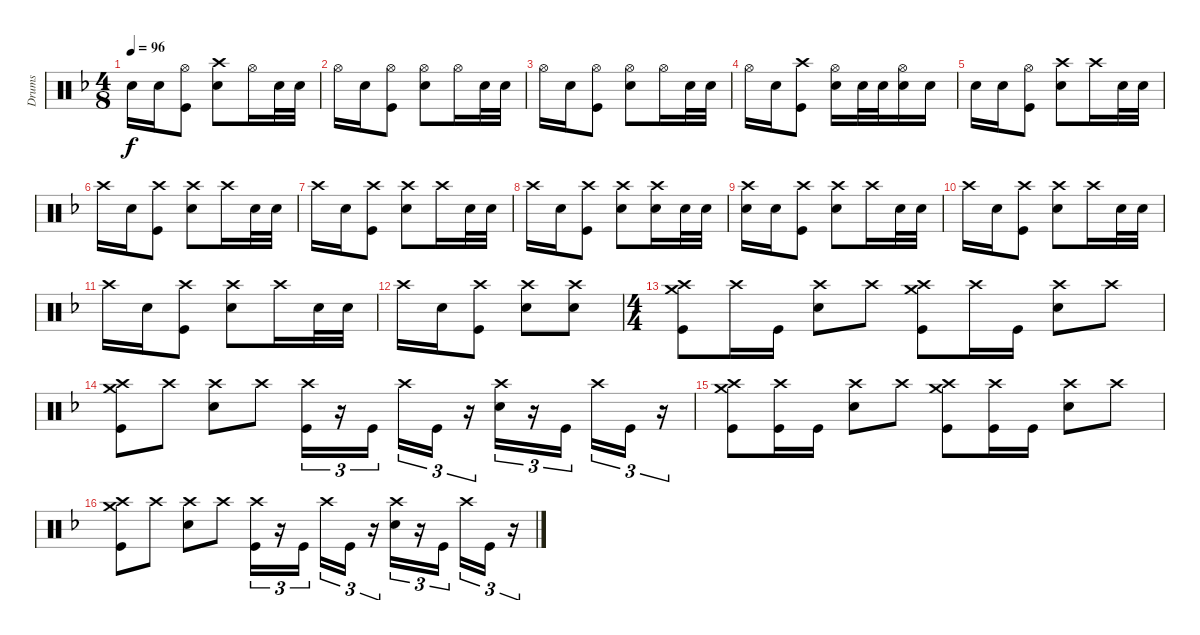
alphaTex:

\track ("Drums" "Drums") {instrument percussion}
\staff {score}
\articulation defaults
\ts (4 8)
\tempo 96
\clef neutral
\ks f "Snare (hit) 2".16{dy f} "Snare (hit) 2".16
("Hi-Hat (open)" "Kick (hit)").8 ("Crash high (hit)" "Snare (hit) 2").8 "Hi-Hat (open)".16 "Snare (hit) 2".32 "Snare (hit) 2".32 |
"Hi-Hat (open)".16 "Snare (hit) 2".16 ("Hi-Hat (open)" "Kick (hit)").8 ("Hi-Hat (open)" "Snare (hit) 2").8 "Hi-Hat (open)".16 "Snare (hit) 2".32 "Snare (hit) 2".32 |
"Hi-Hat (open)".16 "Snare (hit) 2".16 ("Hi-Hat (open)" "Kick (hit)").8 ("Hi-Hat (open)" "Snare (hit) 2").8 "Hi-Hat (open)".16 "Snare (hit) 2".32 "Snare (hit) 2".32 |
"Hi-Hat (open)".16 "Snare (hit) 2".16 ("Crash high (hit)" "Kick (hit)").8 ("Hi-Hat (open)" "Snare (hit) 2").16 "Snare (hit) 2".32 "Snare (hit) 2".32 ("Hi-Hat (open)" "Snare (hit) 2").16 "Snare (hit) 2".16 |
"Snare (hit) 2".16 "Snare (hit) 2".16 ("Hi-Hat (open)" "Kick (hit)").8 ("Crash high (hit)" "Snare (hit) 2").8 "Crash high (hit)".16 "Snare (hit) 2".32 "Snare (hit) 2".32 |
"Crash high (hit)".16 "Snare (hit) 2".16 ("Crash high (hit)" "Kick (hit)").8 ("Crash high (hit)" "Snare (hit) 2").8 "Crash high (hit)".16 "Snare (hit) 2".32 "Snare (hit) 2".32 |
"Crash high (hit)".16 "Snare (hit) 2".16 ("Crash high (hit)" "Kick (hit)").8 ("Crash high (hit)" "Snare (hit) 2").8 "Crash high (hit)".16 "Snare (hit) 2".32 "Snare (hit) 2".32 |
"Crash high (hit)".16 "Snare (hit) 2".16 ("Crash high (hit)" "Kick (hit)").8 ("Crash high (hit)" "Snare (hit) 2").8 ("Crash high (hit)" "Snare (hit) 2").16 "Snare (hit) 2".32 "Snare (hit) 2".32 |
("Crash high (hit)" "Snare (hit) 2").16 "Snare (hit) 2".16 ("Crash high (hit)" "Kick (hit)").8 ("Crash high (hit)" "Snare (hit) 2").8 "Crash high (hit)".16 "Snare (hit) 2".32 "Snare (hit) 2".32 |
"Crash high (hit)".16 "Snare (hit) 2".16 ("Crash high (hit)" "Kick (hit)").8 ("Crash high (hit)" "Snare (hit) 2").8 "Crash high (hit)".16 "Snare (hit) 2".32 "Snare (hit) 2".32 |
"Crash high (hit)".16 "Snare (hit) 2".16 ("Crash high (hit)" "Kick (hit)").8 ("Crash high (hit)" "Snare (hit) 2").8 "Crash high (hit)".16 "Snare (hit) 2".32 "Snare (hit) 2".32 |
"Crash high (hit)".16 "Snare (hit) 2".16 ("Crash high (hit)" "Kick (hit)").8 ("Crash high (hit)" "Snare (hit) 2").8 ("Crash high (hit)" "Snare (hit) 2").8 |
\ts (4 4)
("Crash medium (hit)" "Crash high (hit)" "Kick (hit)").8 "Crash high (hit)".16 "Kick (hit)".16 ("Crash high (hit)" "Snare (hit) 2").8 "Crash high (hit)".8 ("Crash medium (hit)" "Crash high (hit)" "Kick (hit)").8 "Crash high (hit)".16 "Kick (hit)".16 ("Crash high (hit)" "Snare (hit) 2").8 "Crash high (hit)".8 |
("Crash medium (hit)" "Crash high (hit)" "Kick (hit)").8 "Crash high (hit)".8 ("Crash high (hit)" "Snare (hit) 2").8 "Crash high (hit)".8 ("Crash high (hit)" "Kick (hit)").16{tu (3 2)} r.16{tu (3 2)} "Kick (hit)".16{tu (3 2)} "Crash high (hit)".16{tu (3 2)} "Kick (hit)".16{tu (3 2)} r.16{tu (3 2)} ("Crash high (hit)" "Snare (hit) 2").16{tu (3 2)} r.16{tu (3 2)} "Kick (hit)".16{tu (3 2)} "Crash high (hit)".16{tu (3 2)} "Kick (hit)".16{tu (3 2)} r.16{tu (3 2)} |
("Crash medium (hit)" "Crash high (hit)" "Kick (hit)").8 ("Crash high (hit)" "Kick (hit)").16 "Kick (hit)".16 ("Crash high (hit)" "Snare (hit) 2").8 "Crash high (hit)".8 ("Crash medium (hit)" "Crash high (hit)" "Kick (hit)").8 ("Crash high (hit)" "Kick (hit)").16 "Kick (hit)".16 ("Crash high (hit)" "Snare (hit) 2").8 "Crash high (hit)".8 |
("Crash medium (hit)" "Crash high (hit)" "Kick (hit)").8 "Crash high (hit)".8 ("Crash high (hit)" "Snare (hit) 2").8 "Crash high (hit)".8 ("Crash high (hit)" "Kick (hit)").16{tu (3 2)} r.16{tu (3 2)} "Kick (hit)".16{tu (3 2)} "Crash high (hit)".16{tu (3 2)} "Kick (hit)".16{tu (3 2)} r.16{tu (3 2)} ("Crash high (hit)" "Snare (hit) 2").16{tu (3 2)} r.16{tu (3 2)} "Kick (hit)".16{tu (3 2)} "Crash high (hit)".16{tu (3 2)} "Kick (hit)".16{tu (3 2)} r.16{tu (3 2)}
